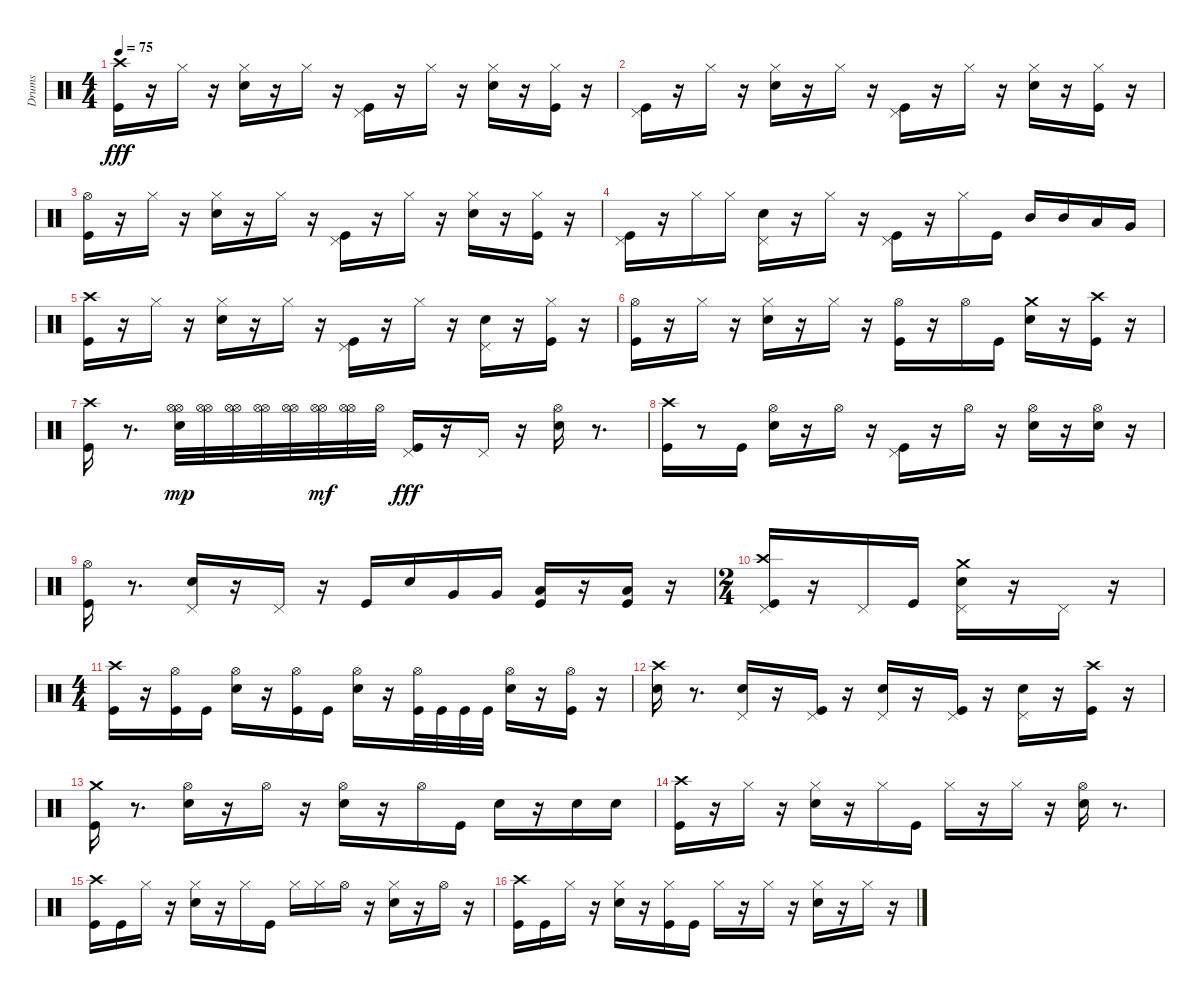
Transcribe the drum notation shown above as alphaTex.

\track ("Drums" "Drums") {instrument percussion}
\staff {score}
\articulation defaults
\ts (4 4)
\tempo 75
\clef neutral
\ks c
("Kick (hit)" "Crash high (hit)").16{dy fff} r.16 "Hi-Hat (closed)".16 r.16 ("Snare (hit) 2" "Hi-Hat (closed)").16 r.16 "Hi-Hat (closed)".16 r.16 ("Kick (hit)" "Pedal Hi-Hat (hit)").16 r.16 "Hi-Hat (closed)".16 r.16 ("Snare (hit) 2" "Hi-Hat (closed)").16 r.16 ("Kick (hit)" "Hi-Hat (closed)").16 r.16 |
("Kick (hit)" "Pedal Hi-Hat (hit)").16 r.16 "Hi-Hat (closed)".16 r.16 ("Snare (hit) 2" "Hi-Hat (closed)").16 r.16 "Hi-Hat (closed)".16 r.16 ("Kick (hit)" "Pedal Hi-Hat (hit)").16 r.16 "Hi-Hat (closed)".16 r.16 ("Snare (hit) 2" "Hi-Hat (closed)").16 r.16 ("Kick (hit)" "Hi-Hat (closed)").16 r.16 |
("Hi-Hat (open)" "Kick (hit)").16 r.16 "Hi-Hat (closed)".16 r.16 ("Hi-Hat (closed)" "Snare (hit) 2").16 r.16 "Hi-Hat (closed)".16 r.16 ("Pedal Hi-Hat (hit)" "Kick (hit)").16 r.16 "Hi-Hat (closed)".16 r.16 ("Hi-Hat (closed)" "Snare (hit) 2").16 r.16 ("Kick (hit)" "Hi-Hat (closed)").16 r.16 |
("Pedal Hi-Hat (hit)" "Kick (hit)").16 r.16 "Hi-Hat (closed)".16 "Hi-Hat (closed)".16 ("Pedal Hi-Hat (hit)" "Snare (hit) 2").16 r.16 "Hi-Hat (closed)".16 r.16 ("Pedal Hi-Hat (hit)" "Kick (hit)").16 r.16 "Hi-Hat (closed)".16 "Kick (hit)".16 "Mid Tom (hit)".16 "Mid Tom (hit)".16 "Low Tom (hit)".16 "Very Low Tom (hit)".16 |
("Crash high (hit)" "Kick (hit)").16 r.16 "Hi-Hat (closed)".16 r.16 ("Hi-Hat (closed)" "Snare (hit) 2").16 r.16 "Hi-Hat (closed)".16 r.16 ("Pedal Hi-Hat (hit)" "Kick (hit)").16 r.16 "Hi-Hat (closed)".16 r.16 ("Pedal Hi-Hat (hit)" "Snare (hit) 2").16 r.16 ("Hi-Hat (closed)" "Kick (hit)").16 r.16 |
("Hi-Hat (open)" "Kick (hit)").16 r.16 "Hi-Hat (closed)".16 r.16 ("Snare (hit) 2" "Hi-Hat (closed)").16 r.16 "Hi-Hat (closed)".16 r.16 ("Hi-Hat (open)" "Kick (hit)").16 r.16 "Hi-Hat (open)".16 "Kick (hit)".16 ("Snare (hit) 2" "Crash medium (hit)").16 r.16 ("Crash high (hit)" "Kick (hit)").16 r.16 |
("Crash high (hit)" "Kick (hit)").16 r.8{d} ("Hi-Hat (open)" "Snare (hit) 2" "Hi-Hat (open)").32{dy mp} ("Hi-Hat (open)" "Hi-Hat (open)").32 ("Hi-Hat (open)" "Hi-Hat (open)").32 ("Hi-Hat (open)" "Hi-Hat (open)").32 ("Hi-Hat (open)" "Hi-Hat (open)").32 ("Hi-Hat (open)" "Hi-Hat (open)").32{dy mf} ("Hi-Hat (open)" "Hi-Hat (open)").32 "Hi-Hat (open)".32 ("Pedal Hi-Hat (hit)" "Kick (hit)").16{dy fff} r.16 "Pedal Hi-Hat (hit)".16 r.16 ("Snare (hit) 2" "Hi-Hat (open)").16 r.8{d} |
("Crash high (hit)" "Kick (hit)").16 r.8 "Kick (hit)".16 ("Hi-Hat (open)" "Snare (hit) 2").16 r.16 "Hi-Hat (open)".16 r.16 ("Kick (hit)" "Pedal Hi-Hat (hit)").16 r.16 "Hi-Hat (open)".16 r.16 ("Snare (hit) 2" "Hi-Hat (open)").16 r.16 ("Snare (hit) 2" "Hi-Hat (open)").16 r.16 |
("Hi-Hat (open)" "Kick (hit)").16 r.8{d} ("Snare (hit) 2" "Pedal Hi-Hat (hit)").16 r.16 "Pedal Hi-Hat (hit)".16 r.16 "Kick (hit)".16 "Snare (hit) 2".16 "Very Low Tom (hit)".16 "Very Low Tom (hit)".16 ("Low Floor Tom (hit)" "Kick (hit)").16 r.16 ("Low Floor Tom (hit)" "Kick (hit)").16 r.16 |
\ts (2 4)
("Pedal Hi-Hat (hit)" "Crash high (hit)" "Kick (hit)").16 r.16 "Pedal Hi-Hat (hit)".16 "Kick (hit)".16 ("Pedal Hi-Hat (hit)" "Crash medium (hit)" "Snare (hit) 2").16 r.16 "Pedal Hi-Hat (hit)".16 r.16 |
\ts (4 4)
("Crash high (hit)" "Kick (hit)").16 r.16 ("Hi-Hat (open)" "Kick (hit)").16 "Kick (hit)".16 ("Hi-Hat (open)" "Snare (hit) 2").16 r.16 ("Hi-Hat (open)" "Kick (hit)").16 "Kick (hit)".16 ("Hi-Hat (open)" "Snare (hit) 2").16 r.16 ("Hi-Hat (open)" "Kick (hit)").32 "Kick (hit)".32 "Kick (hit)".32 "Kick (hit)".32 ("Hi-Hat (open)" "Snare (hit) 2").16 r.16 ("Kick (hit)" "Hi-Hat (open)").16 r.16 |
("Snare (hit) 2" "Crash high (hit)").16 r.8{d} ("Pedal Hi-Hat (hit)" "Snare (hit) 2").16 r.16 ("Kick (hit)" "Pedal Hi-Hat (hit)").16 r.16 ("Pedal Hi-Hat (hit)" "Snare (hit) 2").16 r.16 ("Kick (hit)" "Pedal Hi-Hat (hit)").16 r.16 ("Pedal Hi-Hat (hit)" "Snare (hit) 2").16 r.16 ("Crash high (hit)" "Kick (hit)").16 r.16 |
("Kick (hit)" "Crash medium (hit)").16 r.8{d} ("Hi-Hat (open)" "Snare (hit) 2").16 r.16 "Hi-Hat (open)".16 r.16 ("Snare (hit) 2" "Hi-Hat (open)").16 r.16 "Hi-Hat (open)".16 "Kick (hit)".16 "Snare (hit) 2".16 r.16 "Snare (hit) 2".16 "Snare (hit) 2".16 |
("Crash high (hit)" "Kick (hit)").16 r.16 "Hi-Hat (closed)".16 r.16 ("Hi-Hat (closed)" "Snare (hit) 2").16 r.16 "Hi-Hat (closed)".16 "Kick (hit)".16 "Hi-Hat (closed)".16 r.16 "Hi-Hat (closed)".16 r.16 ("Hi-Hat (open)" "Snare (hit) 2").16 r.8{d} |
("Kick (hit)" "Crash high (hit)").16 "Kick (hit)".16 "Hi-Hat (closed)".16 r.16 ("Snare (hit) 2" "Hi-Hat (closed)").16 r.16 "Hi-Hat (closed)".16 "Kick (hit)".16 "Hi-Hat (closed)".16 "Hi-Hat (closed)".16 "Hi-Hat (open)".16 r.16 ("Snare (hit) 2" "Hi-Hat (closed)").16 r.16 "Hi-Hat (open)".16 r.16 |
("Kick (hit)" "Crash high (hit)").16 "Kick (hit)".16 "Hi-Hat (closed)".16 r.16 ("Snare (hit) 2" "Hi-Hat (closed)").16 r.16 ("Kick (hit)" "Hi-Hat (closed)").16 "Kick (hit)".16 "Hi-Hat (closed)".16 r.16 "Hi-Hat (closed)".16 r.16 ("Hi-Hat (closed)" "Snare (hit) 2").16 r.16 "Hi-Hat (closed)".16 r.16
